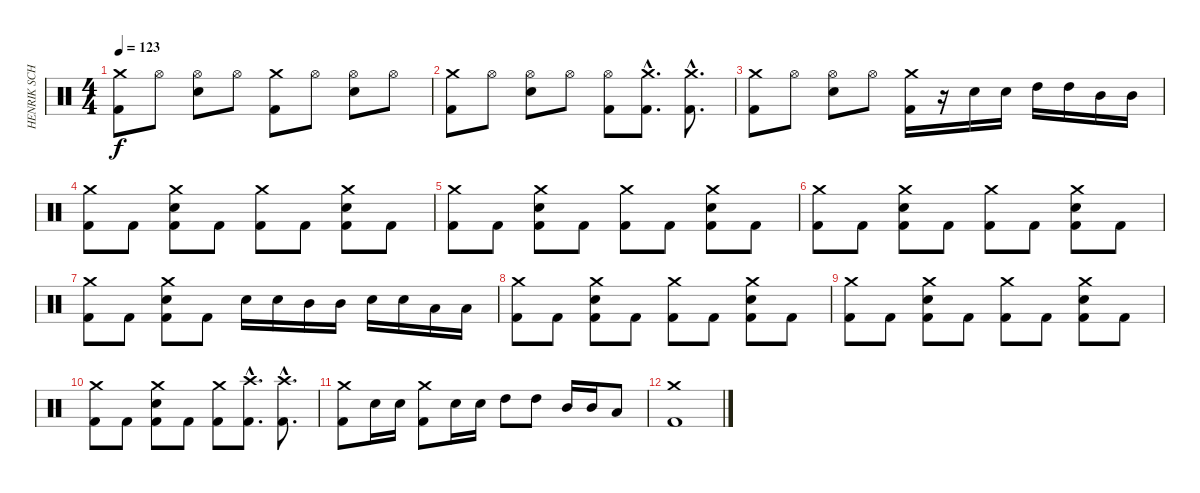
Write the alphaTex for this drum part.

\track ("HENRIK SCHÖNSTÖM " "HENRIK SCH") {instrument percussion}
\staff {score}
\articulation defaults
\ts (4 4)
\tempo 123
\clef neutral
\ks c
("Crash medium (hit)" "Kick (hit) 2").8{dy f} "Hi-Hat (open)".8 ("Hi-Hat (open)" "Snare (hit) 2").8 "Hi-Hat (open)".8 ("Crash medium (hit)" "Kick (hit) 2").8 "Hi-Hat (open)".8 ("Hi-Hat (open)" "Snare (hit) 2").8 "Hi-Hat (open)".8 |
("Crash medium (hit)" "Kick (hit) 2").8 "Hi-Hat (open)".8 ("Hi-Hat (open)" "Snare (hit) 2").8 "Hi-Hat (open)".8 ("Hi-Hat (open)" "Kick (hit) 2").8 ("Crash medium (hit)"{hac} "Kick (hit) 2"{hac}).8{d} ("Crash medium (hit)"{hac} "Kick (hit) 2"{hac}).8{d} |
("Crash medium (hit)" "Kick (hit) 2").8 "Hi-Hat (open)".8 ("Hi-Hat (open)" "Snare (hit) 2").8 "Hi-Hat (open)".8 ("Crash medium (hit)" "Kick (hit) 2").16 r.16 "Snare (hit) 2".16 "Snare (hit) 2".16 "High Tom (hit)".16 "High Tom (hit)".16 "Mid Tom (hit)".16 "Mid Tom (hit)".16 |
("Crash medium (hit)" "Kick (hit) 2").8 "Kick (hit) 2".8 ("Crash medium (hit)" "Snare (hit) 2" "Kick (hit) 2").8 "Kick (hit) 2".8 ("Crash medium (hit)" "Kick (hit) 2").8 "Kick (hit) 2".8 ("Crash medium (hit)" "Snare (hit) 2" "Kick (hit) 2").8 "Kick (hit) 2".8 |
("Crash medium (hit)" "Kick (hit) 2").8 "Kick (hit) 2".8 ("Crash medium (hit)" "Snare (hit) 2" "Kick (hit) 2").8 "Kick (hit) 2".8 ("Crash medium (hit)" "Kick (hit) 2").8 "Kick (hit) 2".8 ("Crash medium (hit)" "Snare (hit) 2" "Kick (hit) 2").8 "Kick (hit) 2".8 |
("Crash medium (hit)" "Kick (hit) 2").8 "Kick (hit) 2".8 ("Crash medium (hit)" "Snare (hit) 2" "Kick (hit) 2").8 "Kick (hit) 2".8 ("Crash medium (hit)" "Kick (hit) 2").8 "Kick (hit) 2".8 ("Crash medium (hit)" "Snare (hit) 2" "Kick (hit) 2").8 "Kick (hit) 2".8 |
("Crash medium (hit)" "Kick (hit) 2").8 "Kick (hit) 2".8 ("Crash medium (hit)" "Snare (hit) 2" "Kick (hit) 2").8 "Kick (hit) 2".8 "Snare (hit) 2".16 "Snare (hit) 2".16 "Mid Tom (hit)".16 "Mid Tom (hit)".16 "Snare (hit) 2".16 "Snare (hit) 2".16 "Low Tom (hit)".16 "Low Tom (hit)".16 |
("Crash medium (hit)" "Kick (hit) 2").8 "Kick (hit) 2".8 ("Crash medium (hit)" "Snare (hit) 2" "Kick (hit) 2").8 "Kick (hit) 2".8 ("Crash medium (hit)" "Kick (hit) 2").8 "Kick (hit) 2".8 ("Crash medium (hit)" "Snare (hit) 2" "Kick (hit) 2").8 "Kick (hit) 2".8 |
("Crash medium (hit)" "Kick (hit) 2").8 "Kick (hit) 2".8 ("Crash medium (hit)" "Snare (hit) 2" "Kick (hit) 2").8 "Kick (hit) 2".8 ("Crash medium (hit)" "Kick (hit) 2").8 "Kick (hit) 2".8 ("Crash medium (hit)" "Snare (hit) 2" "Kick (hit) 2").8 "Kick (hit) 2".8 |
("Crash medium (hit)" "Kick (hit) 2").8 "Kick (hit) 2".8 ("Crash medium (hit)" "Snare (hit) 2" "Kick (hit) 2").8 "Kick (hit) 2".8 ("Crash medium (hit)" "Kick (hit) 2").8 ("Crash high (hit)"{hac} "Kick (hit) 2"{hac}).8{d} ("Crash high (hit)"{hac} "Kick (hit) 2"{hac}).8{d} |
("Crash medium (hit)" "Kick (hit) 2").8 "Snare (hit) 2".16 "Snare (hit) 2".16 ("Crash medium (hit)" "Kick (hit) 2").8 "Snare (hit) 2".16 "Snare (hit) 2".16 "High Tom (hit)".8 "High Tom (hit)".8 "Mid Tom (hit)".16 "Mid Tom (hit)".16 "Low Tom (hit)".8 |
("Crash medium (hit)" "Kick (hit) 2").1
